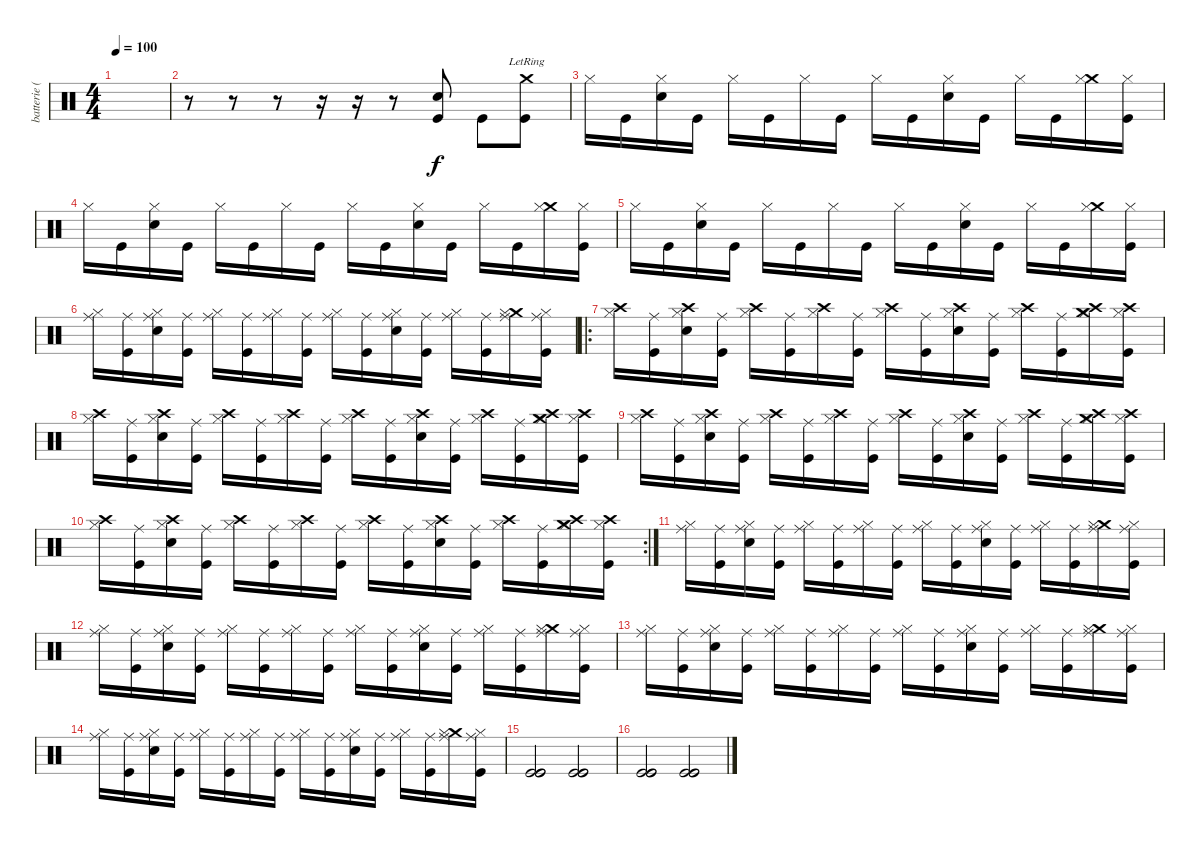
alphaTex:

\track ("batterie (julien)" "batterie (") {instrument percussion}
\staff {score}
\articulation defaults
\ts (4 4)
\tempo 100
\clef neutral
\ks c
|
r.8 r.8 r.8 r.16 r.16 r.8 ("Snare (hit) 2" "Kick (hit)").8 "Kick (hit)".8 ("Crash medium (hit)"{lr} "Kick (hit)").8 |
"Hi-Hat (closed)".16 "Kick (hit)".16 ("Snare (hit) 2" "Hi-Hat (closed)").16 "Kick (hit)".16 "Hi-Hat (closed)".16 "Kick (hit)".16 "Hi-Hat (closed)".16 "Kick (hit)".16 "Hi-Hat (closed)".16 "Kick (hit)".16 ("Snare (hit) 2" "Hi-Hat (closed)").16 "Kick (hit)".16 "Hi-Hat (closed)".16 "Kick (hit)".16 ("Crash medium (hit)" "Hi-Hat (closed)").16 ("Kick (hit)" "Hi-Hat (closed)").16 |
"Hi-Hat (closed)".16 "Kick (hit)".16 ("Snare (hit) 2" "Hi-Hat (closed)").16 "Kick (hit)".16 "Hi-Hat (closed)".16 "Kick (hit)".16 "Hi-Hat (closed)".16 "Kick (hit)".16 "Hi-Hat (closed)".16 "Kick (hit)".16 ("Snare (hit) 2" "Hi-Hat (closed)").16 "Kick (hit)".16 "Hi-Hat (closed)".16 "Kick (hit)".16 ("Crash medium (hit)" "Hi-Hat (closed)").16 ("Kick (hit)" "Hi-Hat (closed)").16 |
"Hi-Hat (closed)".16 "Kick (hit)".16 ("Snare (hit) 2" "Hi-Hat (closed)").16 "Kick (hit)".16 "Hi-Hat (closed)".16 "Kick (hit)".16 "Hi-Hat (closed)".16 "Kick (hit)".16 "Hi-Hat (closed)".16 "Kick (hit)".16 ("Snare (hit) 2" "Hi-Hat (closed)").16 "Kick (hit)".16 "Hi-Hat (closed)".16 "Kick (hit)".16 ("Crash medium (hit)" "Hi-Hat (closed)").16 ("Kick (hit)" "Hi-Hat (closed)").16 |
("Ride (middle)" "Hi-Hat (closed)").16 ("Kick (hit)" "Ride (middle)").16 ("Snare (hit) 2" "Ride (middle)" "Hi-Hat (closed)").16 ("Kick (hit)" "Ride (middle)").16 ("Ride (middle)" "Hi-Hat (closed)").16 ("Kick (hit)" "Ride (middle)").16 ("Ride (middle)" "Hi-Hat (closed)").16 ("Kick (hit)" "Ride (middle)").16 ("Ride (middle)" "Hi-Hat (closed)").16 ("Kick (hit)" "Ride (middle)").16 ("Snare (hit) 2" "Ride (middle)" "Hi-Hat (closed)").16 ("Kick (hit)" "Ride (middle)").16 ("Ride (middle)" "Hi-Hat (closed)").16 ("Kick (hit)" "Ride (middle)").16 ("Crash medium (hit)" "Ride (middle)" "Hi-Hat (closed)").16 ("Kick (hit)" "Ride (middle)" "Hi-Hat (closed)").16 |
\ro
("Crash high (hit)" "Hi-Hat (closed)").16 ("Kick (hit)" "Ride (middle)").16 ("Snare (hit) 2" "Crash high (hit)" "Hi-Hat (closed)").16 ("Kick (hit)" "Ride (middle)").16 ("Crash high (hit)" "Hi-Hat (closed)").16 ("Kick (hit)" "Ride (middle)").16 ("Crash high (hit)" "Hi-Hat (closed)").16 ("Kick (hit)" "Ride (middle)").16 ("Crash high (hit)" "Hi-Hat (closed)").16 ("Kick (hit)" "Ride (middle)").16 ("Snare (hit) 2" "Crash high (hit)" "Hi-Hat (closed)").16 ("Kick (hit)" "Ride (middle)").16 ("Crash high (hit)" "Hi-Hat (closed)").16 ("Kick (hit)" "Ride (middle)").16 ("Crash medium (hit)" "Crash high (hit)" "Hi-Hat (closed)").16 ("Kick (hit)" "Crash high (hit)" "Hi-Hat (closed)").16 |
("Crash high (hit)" "Hi-Hat (closed)").16 ("Kick (hit)" "Ride (middle)").16 ("Snare (hit) 2" "Crash high (hit)" "Hi-Hat (closed)").16 ("Kick (hit)" "Ride (middle)").16 ("Crash high (hit)" "Hi-Hat (closed)").16 ("Kick (hit)" "Ride (middle)").16 ("Crash high (hit)" "Hi-Hat (closed)").16 ("Kick (hit)" "Ride (middle)").16 ("Crash high (hit)" "Hi-Hat (closed)").16 ("Kick (hit)" "Ride (middle)").16 ("Snare (hit) 2" "Crash high (hit)" "Hi-Hat (closed)").16 ("Kick (hit)" "Ride (middle)").16 ("Crash high (hit)" "Hi-Hat (closed)").16 ("Kick (hit)" "Ride (middle)").16 ("Crash medium (hit)" "Crash high (hit)" "Hi-Hat (closed)").16 ("Kick (hit)" "Crash high (hit)" "Hi-Hat (closed)").16 |
("Crash high (hit)" "Hi-Hat (closed)").16 ("Kick (hit)" "Ride (middle)").16 ("Snare (hit) 2" "Crash high (hit)" "Hi-Hat (closed)").16 ("Kick (hit)" "Ride (middle)").16 ("Crash high (hit)" "Hi-Hat (closed)").16 ("Kick (hit)" "Ride (middle)").16 ("Crash high (hit)" "Hi-Hat (closed)").16 ("Kick (hit)" "Ride (middle)").16 ("Crash high (hit)" "Hi-Hat (closed)").16 ("Kick (hit)" "Ride (middle)").16 ("Snare (hit) 2" "Crash high (hit)" "Hi-Hat (closed)").16 ("Kick (hit)" "Ride (middle)").16 ("Crash high (hit)" "Hi-Hat (closed)").16 ("Kick (hit)" "Ride (middle)").16 ("Crash medium (hit)" "Crash high (hit)" "Hi-Hat (closed)").16 ("Kick (hit)" "Crash high (hit)" "Hi-Hat (closed)").16 |
\rc 2
("Crash high (hit)" "Hi-Hat (closed)").16 ("Kick (hit)" "Ride (middle)").16 ("Snare (hit) 2" "Crash high (hit)" "Hi-Hat (closed)").16 ("Kick (hit)" "Ride (middle)").16 ("Crash high (hit)" "Hi-Hat (closed)").16 ("Kick (hit)" "Ride (middle)").16 ("Crash high (hit)" "Hi-Hat (closed)").16 ("Kick (hit)" "Ride (middle)").16 ("Crash high (hit)" "Hi-Hat (closed)").16 ("Kick (hit)" "Ride (middle)").16 ("Snare (hit) 2" "Crash high (hit)" "Hi-Hat (closed)").16 ("Kick (hit)" "Ride (middle)").16 ("Crash high (hit)" "Hi-Hat (closed)").16 ("Kick (hit)" "Ride (middle)").16 ("Crash medium (hit)" "Crash high (hit)" "Hi-Hat (closed)").16 ("Kick (hit)" "Crash high (hit)" "Hi-Hat (closed)").16 |
("Ride (middle)" "Hi-Hat (closed)").16 ("Kick (hit)" "Ride (middle)").16 ("Snare (hit) 2" "Ride (middle)" "Hi-Hat (closed)").16 ("Kick (hit)" "Ride (middle)").16 ("Ride (middle)" "Hi-Hat (closed)").16 ("Kick (hit)" "Ride (middle)").16 ("Ride (middle)" "Hi-Hat (closed)").16 ("Kick (hit)" "Ride (middle)").16 ("Ride (middle)" "Hi-Hat (closed)").16 ("Kick (hit)" "Ride (middle)").16 ("Snare (hit) 2" "Ride (middle)" "Hi-Hat (closed)").16 ("Kick (hit)" "Ride (middle)").16 ("Ride (middle)" "Hi-Hat (closed)").16 ("Kick (hit)" "Ride (middle)").16 ("Crash medium (hit)" "Ride (middle)" "Hi-Hat (closed)").16 ("Kick (hit)" "Ride (middle)" "Hi-Hat (closed)").16 |
("Ride (middle)" "Hi-Hat (closed)").16 ("Kick (hit)" "Ride (middle)").16 ("Snare (hit) 2" "Ride (middle)" "Hi-Hat (closed)").16 ("Kick (hit)" "Ride (middle)").16 ("Ride (middle)" "Hi-Hat (closed)").16 ("Kick (hit)" "Ride (middle)").16 ("Ride (middle)" "Hi-Hat (closed)").16 ("Kick (hit)" "Ride (middle)").16 ("Ride (middle)" "Hi-Hat (closed)").16 ("Kick (hit)" "Ride (middle)").16 ("Snare (hit) 2" "Ride (middle)" "Hi-Hat (closed)").16 ("Kick (hit)" "Ride (middle)").16 ("Ride (middle)" "Hi-Hat (closed)").16 ("Kick (hit)" "Ride (middle)").16 ("Crash medium (hit)" "Ride (middle)" "Hi-Hat (closed)").16 ("Kick (hit)" "Ride (middle)" "Hi-Hat (closed)").16 |
("Ride (middle)" "Hi-Hat (closed)").16 ("Kick (hit)" "Ride (middle)").16 ("Snare (hit) 2" "Ride (middle)" "Hi-Hat (closed)").16 ("Kick (hit)" "Ride (middle)").16 ("Ride (middle)" "Hi-Hat (closed)").16 ("Kick (hit)" "Ride (middle)").16 ("Ride (middle)" "Hi-Hat (closed)").16 ("Kick (hit)" "Ride (middle)").16 ("Ride (middle)" "Hi-Hat (closed)").16 ("Kick (hit)" "Ride (middle)").16 ("Snare (hit) 2" "Ride (middle)" "Hi-Hat (closed)").16 ("Kick (hit)" "Ride (middle)").16 ("Ride (middle)" "Hi-Hat (closed)").16 ("Kick (hit)" "Ride (middle)").16 ("Crash medium (hit)" "Ride (middle)" "Hi-Hat (closed)").16 ("Kick (hit)" "Ride (middle)" "Hi-Hat (closed)").16 |
("Ride (middle)" "Hi-Hat (closed)").16 ("Kick (hit)" "Ride (middle)").16 ("Snare (hit) 2" "Ride (middle)" "Hi-Hat (closed)").16 ("Kick (hit)" "Ride (middle)").16 ("Ride (middle)" "Hi-Hat (closed)").16 ("Kick (hit)" "Ride (middle)").16 ("Ride (middle)" "Hi-Hat (closed)").16 ("Kick (hit)" "Ride (middle)").16 ("Ride (middle)" "Hi-Hat (closed)").16 ("Kick (hit)" "Ride (middle)").16 ("Snare (hit) 2" "Ride (middle)" "Hi-Hat (closed)").16 ("Kick (hit)" "Ride (middle)").16 ("Ride (middle)" "Hi-Hat (closed)").16 ("Kick (hit)" "Ride (middle)").16 ("Crash medium (hit)" "Ride (middle)" "Hi-Hat (closed)").16 ("Kick (hit)" "Ride (middle)" "Hi-Hat (closed)").16 |
("Kick (hit)" "Kick (hit)" "Kick (hit)").2 ("Kick (hit)" "Kick (hit)" "Kick (hit)").2 |
("Kick (hit)" "Kick (hit)" "Kick (hit)").2 ("Kick (hit)" "Kick (hit)" "Kick (hit)").2
